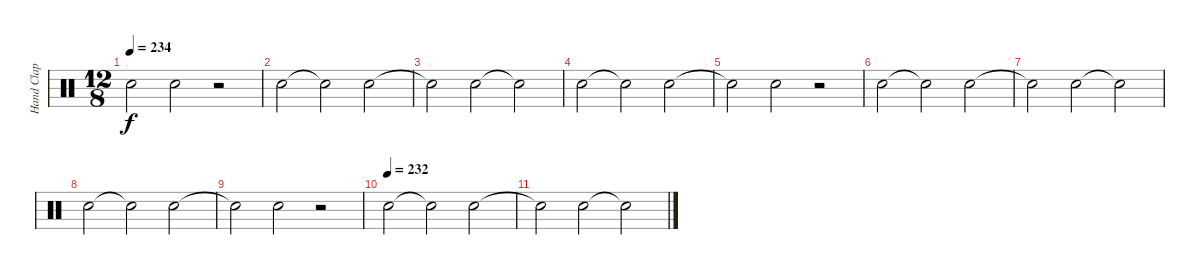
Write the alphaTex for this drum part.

\track ("Hand Clap" "Hand Clap") {instrument percussion}
\staff {score}
\articulation defaults
\ts (12 8)
\tempo 234
\clef neutral
\ks c "Snare (hit)"{t}.2{dy f} "Snare (hit) 2".2
r.2 |
"Snare (hit) 2".2 "Snare (hit)"{t}.2 "Snare (hit) 2".2 |
"Hand Clap (hit)"{t}.2 "Snare (hit) 2".2 "Hand Clap (hit)"{t}.2 |
"Snare (hit) 2".2 "Snare (hit) 2"{t}.2 "Snare (hit) 2".2 |
"Snare (hit)"{t}.2 "Snare (hit) 2".2 r.2 |
"Snare (hit) 2".2 "Snare (hit)"{t}.2 "Snare (hit) 2".2 |
"Hand Clap (hit)"{t}.2 "Snare (hit) 2".2 "Hand Clap (hit)"{t}.2 |
"Snare (hit) 2".2 "Snare (hit) 2"{t}.2 "Snare (hit) 2".2 |
"Snare (hit)"{t}.2 "Snare (hit) 2".2 r.2 |
\tempo (232)
"Snare (hit) 2".2 "Snare (hit)"{t}.2 "Snare (hit) 2".2 |
"Hand Clap (hit)"{t}.2 "Snare (hit) 2".2 "Hand Clap (hit)"{t}.2
